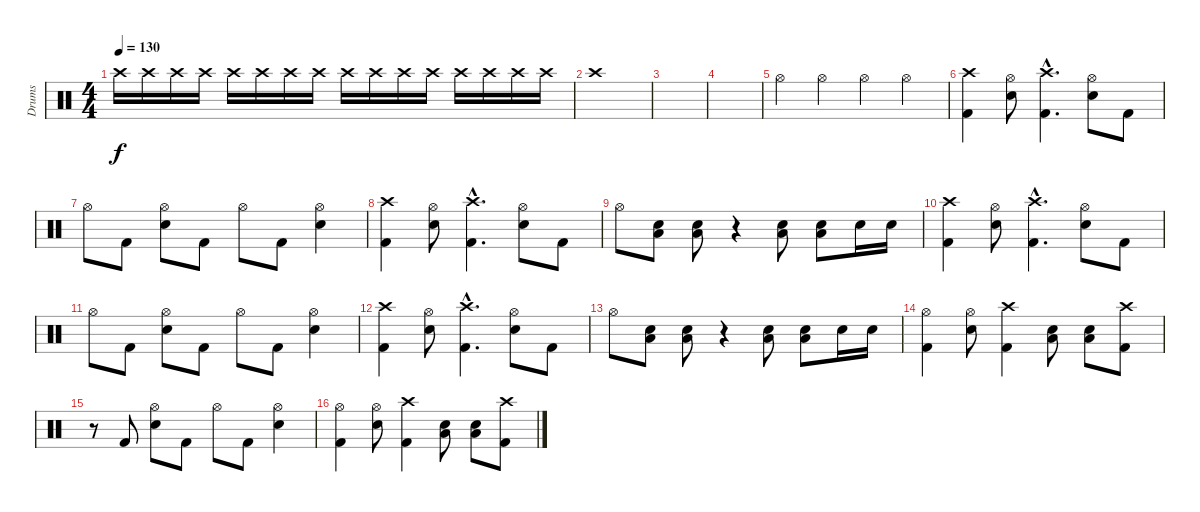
\track ("Drums" "Drums") {instrument percussion}
\staff {score}
\articulation defaults
\ts (4 4)
\tempo 130
\clef neutral
\ks c "Crash high (hit)".16{dy f volume 0} "Crash high (hit)".16{volume 12} "Crash high (hit)".16 "Crash high (hit)".16 "Crash high (hit)".16 "Crash high (hit)".16 "Crash high (hit)".16 "Crash high (hit)".16 "Crash high (hit)".16 "Crash high (hit)".16 "Crash high (hit)".16 "Crash high (hit)".16 "Crash high (hit)".16 "Crash high (hit)".16 "Crash high (hit)".16 "Crash high (hit)".16
|
"Crash high (hit)".1 |
|
|
"Hi-Hat (open)".4 "Hi-Hat (open)".4 "Hi-Hat (open)".4 "Hi-Hat (open)".4 |
("Crash high (hit)" "Kick (hit) 2").4 ("Hi-Hat (open)" "Snare (hit) 2").8 ("Crash high (hit)"{hac} "Kick (hit) 2"{hac}).4{d} ("Hi-Hat (open)" "Snare (hit) 2").8 "Kick (hit) 2".8 |
"Hi-Hat (open)".8 "Kick (hit) 2".8 ("Hi-Hat (open)" "Snare (hit) 2").8 "Kick (hit) 2".8 "Hi-Hat (open)".8 "Kick (hit) 2".8 ("Hi-Hat (open)" "Snare (hit) 2").4 |
("Crash high (hit)" "Kick (hit) 2").4 ("Hi-Hat (open)" "Snare (hit) 2").8 ("Crash high (hit)"{hac} "Kick (hit) 2"{hac}).4{d} ("Hi-Hat (open)" "Snare (hit) 2").8 "Kick (hit) 2".8 |
"Hi-Hat (open)".8 ("Low Floor Tom (hit)" "Snare (hit) 2").8 ("Low Floor Tom (hit)" "Snare (hit) 2").8 r.4 ("Low Floor Tom (hit)" "Snare (hit) 2").8 ("Low Floor Tom (hit)" "Snare (hit) 2").8 "Snare (hit) 2".16 "Snare (hit) 2".16 |
("Crash high (hit)" "Kick (hit) 2").4 ("Hi-Hat (open)" "Snare (hit) 2").8 ("Crash high (hit)"{hac} "Kick (hit) 2"{hac}).4{d} ("Hi-Hat (open)" "Snare (hit) 2").8 "Kick (hit) 2".8 |
"Hi-Hat (open)".8 "Kick (hit) 2".8 ("Hi-Hat (open)" "Snare (hit) 2").8 "Kick (hit) 2".8 "Hi-Hat (open)".8 "Kick (hit) 2".8 ("Hi-Hat (open)" "Snare (hit) 2").4 |
("Crash high (hit)" "Kick (hit) 2").4 ("Hi-Hat (open)" "Snare (hit) 2").8 ("Crash high (hit)"{hac} "Kick (hit) 2"{hac}).4{d} ("Hi-Hat (open)" "Snare (hit) 2").8 "Kick (hit) 2".8 |
"Hi-Hat (open)".8 ("Low Floor Tom (hit)" "Snare (hit) 2").8 ("Low Floor Tom (hit)" "Snare (hit) 2").8 r.4 ("Low Floor Tom (hit)" "Snare (hit) 2").8 ("Low Floor Tom (hit)" "Snare (hit) 2").8 "Snare (hit) 2".16 "Snare (hit) 2".16 |
("Hi-Hat (open)" "Kick (hit) 2").4 ("Hi-Hat (open)" "Snare (hit) 2").8 ("Crash high (hit)" "Kick (hit) 2").4 ("Low Floor Tom (hit)" "Snare (hit) 2").8 ("Low Floor Tom (hit)" "Snare (hit) 2").8 ("Crash high (hit)" "Kick (hit) 2").8 |
r.8 "Kick (hit) 2".8 ("Hi-Hat (open)" "Snare (hit) 2").8 "Kick (hit) 2".8 "Hi-Hat (open)".8 "Kick (hit) 2".8 ("Hi-Hat (open)" "Snare (hit) 2").4 |
("Hi-Hat (open)" "Kick (hit) 2").4 ("Hi-Hat (open)" "Snare (hit) 2").8 ("Crash high (hit)" "Kick (hit) 2").4 ("Low Floor Tom (hit)" "Snare (hit) 2").8 ("Low Floor Tom (hit)" "Snare (hit) 2").8 ("Crash high (hit)" "Kick (hit) 2").8
